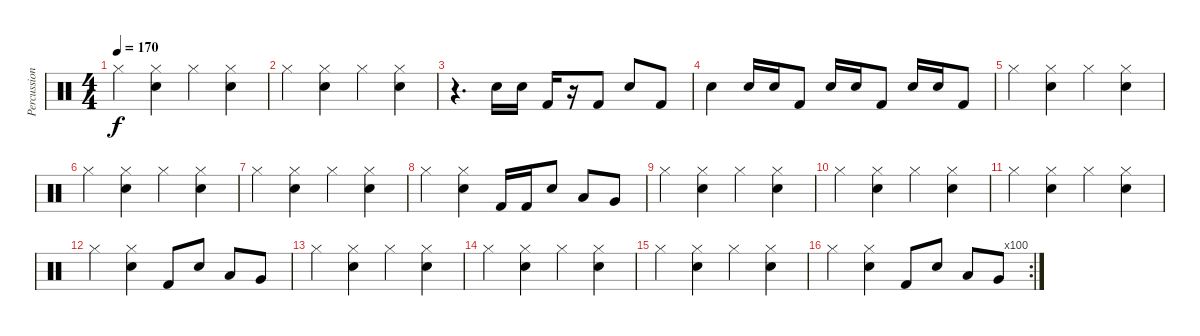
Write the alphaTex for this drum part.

\track ("Percussion" "Percussion") {instrument percussion}
\staff {score}
\articulation defaults
\ts (4 4)
\tempo 170
\clef neutral
\ks c "Hi-Hat (closed)".4{dy f}
("Hi-Hat (closed)" "Electric Snare (hit)").4 "Hi-Hat (closed)".4 ("Hi-Hat (closed)" "Electric Snare (hit)").4 |
"Hi-Hat (closed)".4 ("Hi-Hat (closed)" "Electric Snare (hit)").4 "Hi-Hat (closed)".4 ("Hi-Hat (closed)" "Electric Snare (hit)").4 |
r.4{d} "Electric Snare (hit)".16 "Electric Snare (hit)".16 "Kick (hit) 2".16 r.16 "Kick (hit) 2".8 "Electric Snare (hit)".8 "Kick (hit) 2".8 |
"Electric Snare (hit)".4 "Electric Snare (hit)".16 "Electric Snare (hit)".16 "Kick (hit) 2".8 "Electric Snare (hit)".16 "Electric Snare (hit)".16 "Kick (hit) 2".8 "Electric Snare (hit)".16 "Electric Snare (hit)".16 "Kick (hit) 2".8 |
"Hi-Hat (closed)".4 ("Hi-Hat (closed)" "Electric Snare (hit)").4 "Hi-Hat (closed)".4 ("Hi-Hat (closed)" "Electric Snare (hit)").4 |
"Hi-Hat (closed)".4 ("Hi-Hat (closed)" "Electric Snare (hit)").4 "Hi-Hat (closed)".4 ("Hi-Hat (closed)" "Electric Snare (hit)").4 |
"Hi-Hat (closed)".4 ("Hi-Hat (closed)" "Electric Snare (hit)").4 "Hi-Hat (closed)".4 ("Hi-Hat (closed)" "Electric Snare (hit)").4 |
"Hi-Hat (closed)".4 ("Hi-Hat (closed)" "Electric Snare (hit)").4 "Kick (hit) 2".16 "Kick (hit) 2".16 "Snare (hit) 2".8 "Low Tom (hit)".8 "Very Low Tom (hit)".8 |
"Hi-Hat (closed)".4 ("Hi-Hat (closed)" "Electric Snare (hit)").4 "Hi-Hat (closed)".4 ("Hi-Hat (closed)" "Electric Snare (hit)").4 |
"Hi-Hat (closed)".4 ("Hi-Hat (closed)" "Electric Snare (hit)").4 "Hi-Hat (closed)".4 ("Hi-Hat (closed)" "Electric Snare (hit)").4 |
"Hi-Hat (closed)".4 ("Hi-Hat (closed)" "Electric Snare (hit)").4 "Hi-Hat (closed)".4 ("Hi-Hat (closed)" "Electric Snare (hit)").4 |
"Hi-Hat (closed)".4 ("Hi-Hat (closed)" "Electric Snare (hit)").4 "Kick (hit) 2".8 "Snare (hit) 2".8 "Low Tom (hit)".8 "Very Low Tom (hit)".8 |
"Hi-Hat (closed)".4 ("Hi-Hat (closed)" "Electric Snare (hit)").4 "Hi-Hat (closed)".4 ("Hi-Hat (closed)" "Electric Snare (hit)").4 |
"Hi-Hat (closed)".4 ("Hi-Hat (closed)" "Electric Snare (hit)").4 "Hi-Hat (closed)".4 ("Hi-Hat (closed)" "Electric Snare (hit)").4 |
"Hi-Hat (closed)".4 ("Hi-Hat (closed)" "Electric Snare (hit)").4 "Hi-Hat (closed)".4 ("Hi-Hat (closed)" "Electric Snare (hit)").4 |
\rc 100 "Hi-Hat (closed)".4
("Hi-Hat (closed)" "Electric Snare (hit)").4 "Kick (hit) 2".8 "Snare (hit) 2".8 "Low Tom (hit)".8 "Very Low Tom (hit)".8
